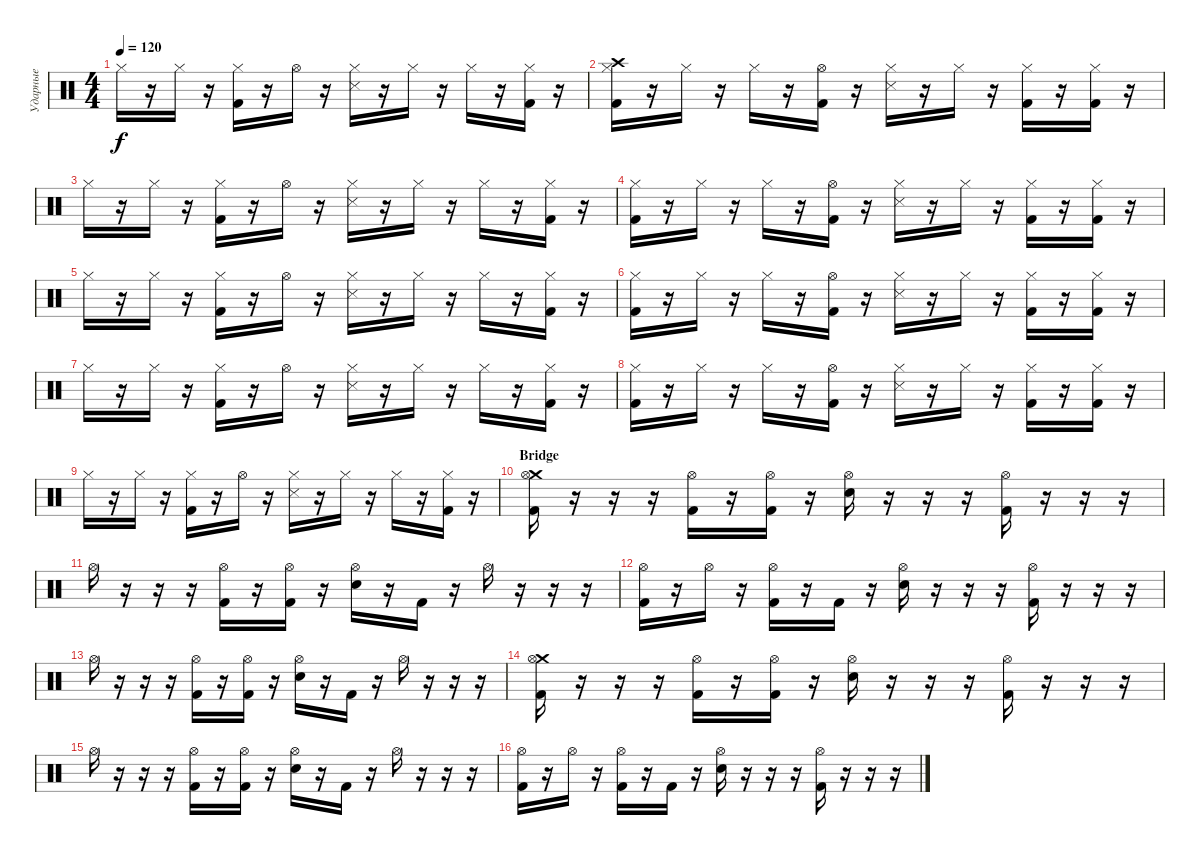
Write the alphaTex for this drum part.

\track ("Ударные" "Ударные") {instrument percussion}
\staff {score}
\articulation defaults
\ts (4 4)
\tempo 120
\clef neutral
\ks c "Hi-Hat (closed)".16{dy f}
r.16 "Hi-Hat (closed)".16 r.16 ("Hi-Hat (closed)" "Kick (hit) 2").16 r.16 "Hi-Hat (open)".16 r.16 ("Hi-Hat (closed)" "Metronome (hit)").16 r.16 "Hi-Hat (closed)".16 r.16 "Hi-Hat (closed)".16 r.16 ("Hi-Hat (closed)" "Kick (hit) 2").16 r.16 |
("Crash high (hit)" "Hi-Hat (closed)" "Kick (hit) 2").16 r.16 "Hi-Hat (closed)".16 r.16 "Hi-Hat (closed)".16 r.16 ("Hi-Hat (open)" "Kick (hit) 2").16 r.16 ("Hi-Hat (closed)" "Snare (side stick) 3").16 r.16 "Hi-Hat (closed)".16 r.16 ("Hi-Hat (closed)" "Kick (hit) 2").16 r.16 ("Hi-Hat (closed)" "Kick (hit) 2").16 r.16 |
"Hi-Hat (closed)".16 r.16 "Hi-Hat (closed)".16 r.16 ("Hi-Hat (closed)" "Kick (hit) 2").16 r.16 "Hi-Hat (open)".16 r.16 ("Hi-Hat (closed)" "Metronome (hit)").16 r.16 "Hi-Hat (closed)".16 r.16 "Hi-Hat (closed)".16 r.16 ("Hi-Hat (closed)" "Kick (hit) 2").16 r.16 |
("Hi-Hat (closed)" "Kick (hit) 2").16 r.16 "Hi-Hat (closed)".16 r.16 "Hi-Hat (closed)".16 r.16 ("Hi-Hat (open)" "Kick (hit) 2").16 r.16 ("Hi-Hat (closed)" "Snare (side stick) 3").16 r.16 "Hi-Hat (closed)".16 r.16 ("Hi-Hat (closed)" "Kick (hit) 2").16 r.16 ("Hi-Hat (closed)" "Kick (hit) 2").16 r.16 |
"Hi-Hat (closed)".16 r.16 "Hi-Hat (closed)".16 r.16 ("Hi-Hat (closed)" "Kick (hit) 2").16 r.16 "Hi-Hat (open)".16 r.16 ("Hi-Hat (closed)" "Metronome (hit)").16 r.16 "Hi-Hat (closed)".16 r.16 "Hi-Hat (closed)".16 r.16 ("Hi-Hat (closed)" "Kick (hit) 2").16 r.16 |
("Hi-Hat (closed)" "Kick (hit) 2").16 r.16 "Hi-Hat (closed)".16 r.16 "Hi-Hat (closed)".16 r.16 ("Hi-Hat (open)" "Kick (hit) 2").16 r.16 ("Hi-Hat (closed)" "Snare (side stick) 3").16 r.16 "Hi-Hat (closed)".16 r.16 ("Hi-Hat (closed)" "Kick (hit) 2").16 r.16 ("Hi-Hat (closed)" "Kick (hit) 2").16 r.16 |
"Hi-Hat (closed)".16 r.16 "Hi-Hat (closed)".16 r.16 ("Hi-Hat (closed)" "Kick (hit) 2").16 r.16 "Hi-Hat (open)".16 r.16 ("Hi-Hat (closed)" "Metronome (hit)").16 r.16 "Hi-Hat (closed)".16 r.16 "Hi-Hat (closed)".16 r.16 ("Hi-Hat (closed)" "Kick (hit) 2").16 r.16 |
("Hi-Hat (closed)" "Kick (hit) 2").16 r.16 "Hi-Hat (closed)".16 r.16 "Hi-Hat (closed)".16 r.16 ("Hi-Hat (open)" "Kick (hit) 2").16 r.16 ("Hi-Hat (closed)" "Snare (side stick) 3").16 r.16 "Hi-Hat (closed)".16 r.16 ("Hi-Hat (closed)" "Kick (hit) 2").16 r.16 ("Hi-Hat (closed)" "Kick (hit) 2").16 r.16 |
"Hi-Hat (closed)".16 r.16 "Hi-Hat (closed)".16 r.16 ("Hi-Hat (closed)" "Kick (hit) 2").16 r.16 "Hi-Hat (open)".16 r.16 ("Hi-Hat (closed)" "Metronome (hit)").16 r.16 "Hi-Hat (closed)".16 r.16 "Hi-Hat (closed)".16 r.16 ("Hi-Hat (closed)" "Kick (hit) 2").16 r.16 |
\section ("" "Bridge")
("Crash medium (hit)" "Hi-Hat (open)" "Kick (hit) 2").16 r.16 r.16 r.16 ("Hi-Hat (open)" "Kick (hit) 2").16 r.16 ("Hi-Hat (open)" "Kick (hit) 2").16 r.16 ("Hi-Hat (open)" "Electric Snare (hit)").16 r.16 r.16 r.16 ("Hi-Hat (open)" "Kick (hit) 2").16 r.16 r.16 r.16 |
"Hi-Hat (open)".16 r.16 r.16 r.16 ("Hi-Hat (open)" "Kick (hit) 2").16 r.16 ("Hi-Hat (open)" "Kick (hit) 2").16 r.16 ("Hi-Hat (open)" "Electric Snare (hit)").16 r.16 "Kick (hit) 2".16 r.16 "Hi-Hat (open)".16 r.16 r.16 r.16 |
("Hi-Hat (open)" "Kick (hit) 2").16 r.16 "Hi-Hat (open)".16 r.16 ("Hi-Hat (open)" "Kick (hit) 2").16 r.16 "Kick (hit) 2".16 r.16 ("Hi-Hat (open)" "Electric Snare (hit)").16 r.16 r.16 r.16 ("Hi-Hat (open)" "Kick (hit) 2").16 r.16 r.16 r.16 |
"Hi-Hat (open)".16 r.16 r.16 r.16 ("Hi-Hat (open)" "Kick (hit) 2").16 r.16 ("Hi-Hat (open)" "Kick (hit) 2").16 r.16 ("Hi-Hat (open)" "Electric Snare (hit)").16 r.16 "Kick (hit) 2".16 r.16 "Hi-Hat (open)".16 r.16 r.16 r.16 |
("Crash medium (hit)" "Hi-Hat (open)" "Kick (hit) 2").16 r.16 r.16 r.16 ("Hi-Hat (open)" "Kick (hit) 2").16 r.16 ("Hi-Hat (open)" "Kick (hit) 2").16 r.16 ("Hi-Hat (open)" "Electric Snare (hit)").16 r.16 r.16 r.16 ("Hi-Hat (open)" "Kick (hit) 2").16 r.16 r.16 r.16 |
"Hi-Hat (open)".16 r.16 r.16 r.16 ("Hi-Hat (open)" "Kick (hit) 2").16 r.16 ("Hi-Hat (open)" "Kick (hit) 2").16 r.16 ("Hi-Hat (open)" "Electric Snare (hit)").16 r.16 "Kick (hit) 2".16 r.16 "Hi-Hat (open)".16 r.16 r.16 r.16 |
("Hi-Hat (open)" "Kick (hit) 2").16 r.16 "Hi-Hat (open)".16 r.16 ("Hi-Hat (open)" "Kick (hit) 2").16 r.16 "Kick (hit) 2".16 r.16 ("Hi-Hat (open)" "Electric Snare (hit)").16 r.16 r.16 r.16 ("Hi-Hat (open)" "Kick (hit) 2").16 r.16 r.16 r.16
